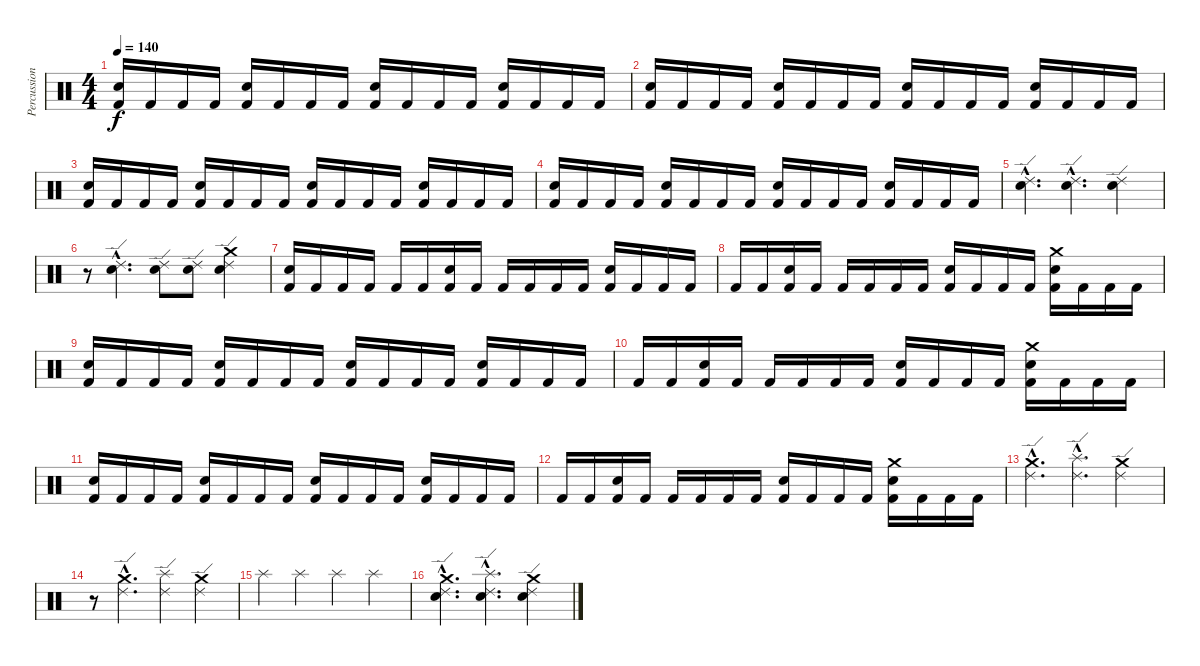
\track ("Percussion" "Percussion") {instrument percussion}
\staff {score}
\articulation defaults
\ts (4 4)
\tempo 140
\clef neutral
\ks c
("Snare (hit) 2" "Kick (hit) 2").16{dy f} "Kick (hit) 2".16 "Kick (hit) 2".16 "Kick (hit) 2".16 ("Snare (hit) 2" "Kick (hit) 2").16 "Kick (hit) 2".16 "Kick (hit) 2".16 "Kick (hit) 2".16 ("Snare (hit) 2" "Kick (hit) 2").16 "Kick (hit) 2".16 "Kick (hit) 2".16 "Kick (hit) 2".16 ("Snare (hit) 2" "Kick (hit) 2").16 "Kick (hit) 2".16 "Kick (hit) 2".16 "Kick (hit) 2".16 |
("Snare (hit) 2" "Kick (hit) 2").16 "Kick (hit) 2".16 "Kick (hit) 2".16 "Kick (hit) 2".16 ("Snare (hit) 2" "Kick (hit) 2").16 "Kick (hit) 2".16 "Kick (hit) 2".16 "Kick (hit) 2".16 ("Snare (hit) 2" "Kick (hit) 2").16 "Kick (hit) 2".16 "Kick (hit) 2".16 "Kick (hit) 2".16 ("Snare (hit) 2" "Kick (hit) 2").16 "Kick (hit) 2".16 "Kick (hit) 2".16 "Kick (hit) 2".16 |
("Snare (hit) 2" "Kick (hit) 2").16 "Kick (hit) 2".16 "Kick (hit) 2".16 "Kick (hit) 2".16 ("Snare (hit) 2" "Kick (hit) 2").16 "Kick (hit) 2".16 "Kick (hit) 2".16 "Kick (hit) 2".16 ("Snare (hit) 2" "Kick (hit) 2").16 "Kick (hit) 2".16 "Kick (hit) 2".16 "Kick (hit) 2".16 ("Snare (hit) 2" "Kick (hit) 2").16 "Kick (hit) 2".16 "Kick (hit) 2".16 "Kick (hit) 2".16 |
("Snare (hit) 2" "Kick (hit) 2").16 "Kick (hit) 2".16 "Kick (hit) 2".16 "Kick (hit) 2".16 ("Snare (hit) 2" "Kick (hit) 2").16 "Kick (hit) 2".16 "Kick (hit) 2".16 "Kick (hit) 2".16 ("Snare (hit) 2" "Kick (hit) 2").16 "Kick (hit) 2".16 "Kick (hit) 2".16 "Kick (hit) 2".16 ("Snare (hit) 2" "Kick (hit) 2").16 "Kick (hit) 2".16 "Kick (hit) 2".16 "Kick (hit) 2".16 |
("Ride (edge) 2"{hac} "Snare (hit) 2"{hac}).4{d} ("Ride (edge) 2"{hac} "Snare (hit) 2"{hac}).4{d} ("Ride (edge) 2" "Snare (hit) 2").4 |
r.8 ("Ride (edge) 2"{hac} "Snare (hit) 2"{hac}).4{d} ("Ride (edge) 2" "Snare (hit) 2").8 ("Ride (edge) 2" "Snare (hit) 2").8 ("Crash medium (hit)" "Ride (edge) 2" "Snare (hit) 2").4 |
("Snare (hit) 2" "Kick (hit) 2").16 "Kick (hit) 2".16 "Kick (hit) 2".16 "Kick (hit) 2".16 "Kick (hit) 2".16 "Kick (hit) 2".16 ("Snare (hit) 2" "Kick (hit) 2").16 "Kick (hit) 2".16 "Kick (hit) 2".16 "Kick (hit) 2".16 "Kick (hit) 2".16 "Kick (hit) 2".16 ("Snare (hit) 2" "Kick (hit) 2").16 "Kick (hit) 2".16 "Kick (hit) 2".16 "Kick (hit) 2".16 |
"Kick (hit) 2".16 "Kick (hit) 2".16 ("Snare (hit) 2" "Kick (hit) 2").16 "Kick (hit) 2".16 "Kick (hit) 2".16 "Kick (hit) 2".16 "Kick (hit) 2".16 "Kick (hit) 2".16 ("Snare (hit) 2" "Kick (hit) 2").16 "Kick (hit) 2".16 "Kick (hit) 2".16 "Kick (hit) 2".16 ("Crash medium (hit)" "Snare (hit) 2" "Kick (hit) 2").16 "Kick (hit) 2".16 "Kick (hit) 2".16 "Kick (hit) 2".16 |
("Snare (hit) 2" "Kick (hit) 2").16 "Kick (hit) 2".16 "Kick (hit) 2".16 "Kick (hit) 2".16 ("Snare (hit) 2" "Kick (hit) 2").16 "Kick (hit) 2".16 "Kick (hit) 2".16 "Kick (hit) 2".16 ("Snare (hit) 2" "Kick (hit) 2").16 "Kick (hit) 2".16 "Kick (hit) 2".16 "Kick (hit) 2".16 ("Snare (hit) 2" "Kick (hit) 2").16 "Kick (hit) 2".16 "Kick (hit) 2".16 "Kick (hit) 2".16 |
"Kick (hit) 2".16 "Kick (hit) 2".16 ("Snare (hit) 2" "Kick (hit) 2").16 "Kick (hit) 2".16 "Kick (hit) 2".16 "Kick (hit) 2".16 "Kick (hit) 2".16 "Kick (hit) 2".16 ("Snare (hit) 2" "Kick (hit) 2").16 "Kick (hit) 2".16 "Kick (hit) 2".16 "Kick (hit) 2".16 ("Crash medium (hit)" "Snare (hit) 2" "Kick (hit) 2").16 "Kick (hit) 2".16 "Kick (hit) 2".16 "Kick (hit) 2".16 |
("Snare (hit) 2" "Kick (hit) 2").16 "Kick (hit) 2".16 "Kick (hit) 2".16 "Kick (hit) 2".16 ("Snare (hit) 2" "Kick (hit) 2").16 "Kick (hit) 2".16 "Kick (hit) 2".16 "Kick (hit) 2".16 ("Snare (hit) 2" "Kick (hit) 2").16 "Kick (hit) 2".16 "Kick (hit) 2".16 "Kick (hit) 2".16 ("Snare (hit) 2" "Kick (hit) 2").16 "Kick (hit) 2".16 "Kick (hit) 2".16 "Kick (hit) 2".16 |
"Kick (hit) 2".16 "Kick (hit) 2".16 ("Snare (hit) 2" "Kick (hit) 2").16 "Kick (hit) 2".16 "Kick (hit) 2".16 "Kick (hit) 2".16 "Kick (hit) 2".16 "Kick (hit) 2".16 ("Snare (hit) 2" "Kick (hit) 2").16 "Kick (hit) 2".16 "Kick (hit) 2".16 "Kick (hit) 2".16 ("Crash medium (hit)" "Snare (hit) 2" "Kick (hit) 2").16 "Kick (hit) 2".16 "Kick (hit) 2".16 "Kick (hit) 2".16 |
("Crash medium (hit)"{hac} "Ride (edge) 2"{hac}).4{d} ("Splash (hit)"{hac} "Ride (edge) 2"{hac}).4{d} ("Crash medium (hit)" "Ride (edge) 2").4 |
r.8 ("Crash medium (hit)"{hac} "Ride (edge) 2"{hac}).4{d} ("Splash (hit)" "Ride (edge) 2").4 ("Crash medium (hit)" "Ride (edge) 2").4 |
"Splash (hit)".4 "Splash (hit)".4 "Splash (hit)".4 "Splash (hit)".4 |
("Crash medium (hit)"{hac} "Ride (edge) 2"{hac} "Snare (hit) 2"{hac}).4{d} ("Splash (hit)"{hac} "Ride (edge) 2"{hac} "Snare (hit) 2"{hac}).4{d} ("Crash medium (hit)" "Ride (edge) 2" "Snare (hit) 2").4
